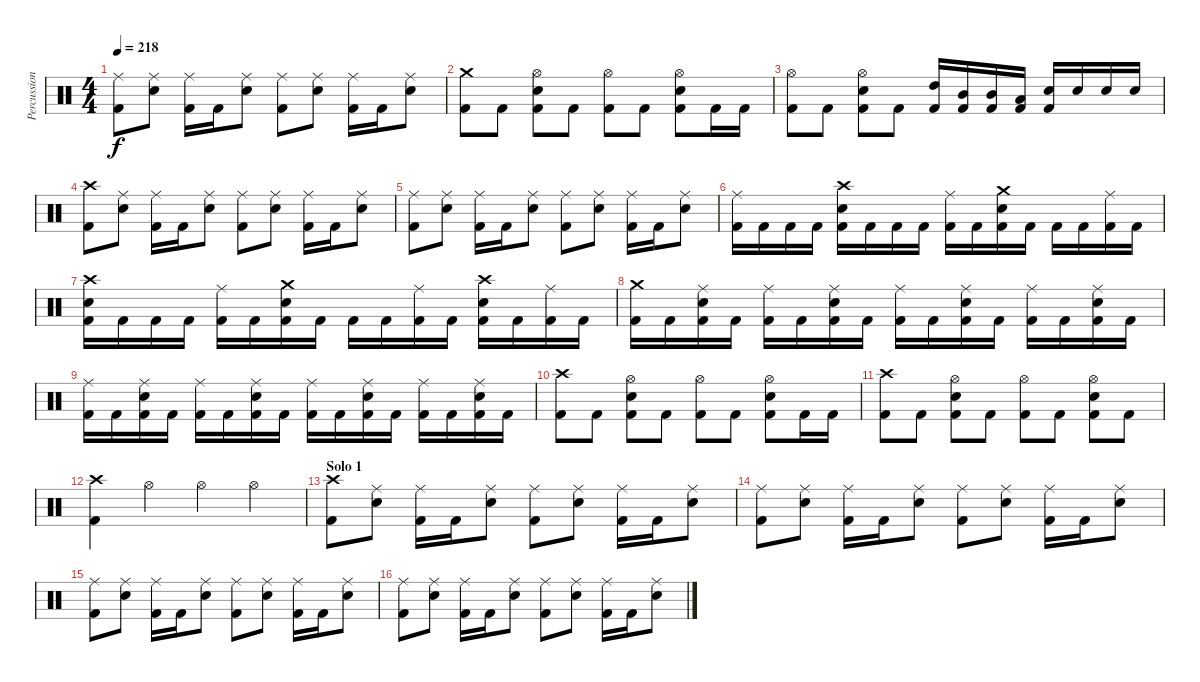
\track ("Percussion" "Percussion") {instrument percussion}
\staff {score}
\articulation defaults
\ts (4 4)
\tempo 218
\clef neutral
\ks c
("Ride (middle)" "Kick (hit) 2").8{dy f} ("Ride (middle)" "Electric Snare (hit)").8 ("Ride (middle)" "Kick (hit) 2").16 "Kick (hit) 2".16 ("Ride (middle)" "Electric Snare (hit)").8 ("Ride (middle)" "Kick (hit) 2").8 ("Ride (middle)" "Electric Snare (hit)").8 ("Ride (middle)" "Kick (hit) 2").16 "Kick (hit) 2".16 ("Ride (middle)" "Electric Snare (hit)").8 |
("Crash medium (hit)" "Kick (hit) 2").8 "Kick (hit) 2".8 ("Hi-Hat (open)" "Electric Snare (hit)" "Kick (hit) 2").8 "Kick (hit) 2".8 ("Hi-Hat (open)" "Kick (hit) 2").8 "Kick (hit) 2".8 ("Hi-Hat (open)" "Electric Snare (hit)" "Kick (hit) 2").8 "Kick (hit) 2".16 "Kick (hit) 2".16 |
("Hi-Hat (open)" "Kick (hit) 2").8 "Kick (hit) 2".8 ("Hi-Hat (open)" "Electric Snare (hit)" "Kick (hit) 2").8 "Kick (hit) 2".8 ("High Tom (hit)" "Kick (hit) 2").16 ("Mid Tom (hit)" "Kick (hit) 2").16 ("Mid Tom (hit)" "Kick (hit) 2").16 ("Low Tom (hit)" "Kick (hit) 2").16 ("Electric Snare (hit)" "Kick (hit) 2").16 "Electric Snare (hit)".16 "Electric Snare (hit)".16 "Electric Snare (hit)".16 |
("Crash high (hit)" "Kick (hit) 2").8 ("Ride (middle)" "Electric Snare (hit)").8 ("Ride (middle)" "Kick (hit) 2").16 "Kick (hit) 2".16 ("Ride (middle)" "Electric Snare (hit)").8 ("Ride (middle)" "Kick (hit) 2").8 ("Ride (middle)" "Electric Snare (hit)").8 ("Ride (middle)" "Kick (hit) 2").16 "Kick (hit) 2".16 ("Ride (middle)" "Electric Snare (hit)").8 |
("Ride (middle)" "Kick (hit) 2").8 ("Ride (middle)" "Electric Snare (hit)").8 ("Ride (middle)" "Kick (hit) 2").16 "Kick (hit) 2".16 ("Ride (middle)" "Electric Snare (hit)").8 ("Ride (middle)" "Kick (hit) 2").8 ("Ride (middle)" "Electric Snare (hit)").8 ("Ride (middle)" "Kick (hit) 2").16 "Kick (hit) 2".16 ("Ride (middle)" "Electric Snare (hit)").8 |
("Ride (middle)" "Kick (hit) 2").16 "Kick (hit) 2".16 "Kick (hit) 2".16 "Kick (hit) 2".16 ("Crash high (hit)" "Electric Snare (hit)" "Kick (hit) 2").16 "Kick (hit) 2".16 "Kick (hit) 2".16 "Kick (hit) 2".16 ("Ride (middle)" "Kick (hit) 2").16 "Kick (hit) 2".16 ("Crash medium (hit)" "Electric Snare (hit)" "Kick (hit) 2").16 "Kick (hit) 2".16 "Kick (hit) 2".16 "Kick (hit) 2".16 ("Ride (middle)" "Kick (hit) 2").16 "Kick (hit) 2".16 |
("Crash high (hit)" "Electric Snare (hit)" "Kick (hit) 2").16 "Kick (hit) 2".16 "Kick (hit) 2".16 "Kick (hit) 2".16 ("Ride (middle)" "Kick (hit) 2").16 "Kick (hit) 2".16 ("Crash medium (hit)" "Electric Snare (hit)" "Kick (hit) 2").16 "Kick (hit) 2".16 "Kick (hit) 2".16 "Kick (hit) 2".16 ("Ride (middle)" "Kick (hit) 2").16 "Kick (hit) 2".16 ("Crash high (hit)" "Electric Snare (hit)" "Kick (hit) 2").16 "Kick (hit) 2".16 ("Ride (middle)" "Kick (hit) 2").16 "Kick (hit) 2".16 |
("Crash medium (hit)" "Kick (hit) 2").16 "Kick (hit) 2".16 ("Ride (middle)" "Electric Snare (hit)" "Kick (hit) 2").16 "Kick (hit) 2".16 ("Ride (middle)" "Kick (hit) 2").16 "Kick (hit) 2".16 ("Ride (middle)" "Electric Snare (hit)" "Kick (hit) 2").16 "Kick (hit) 2".16 ("Ride (middle)" "Kick (hit) 2").16 "Kick (hit) 2".16 ("Ride (middle)" "Electric Snare (hit)" "Kick (hit) 2").16 "Kick (hit) 2".16 ("Ride (middle)" "Kick (hit) 2").16 "Kick (hit) 2".16 ("Ride (middle)" "Electric Snare (hit)" "Kick (hit) 2").16 "Kick (hit) 2".16 |
("Ride (middle)" "Kick (hit) 2").16 "Kick (hit) 2".16 ("Ride (middle)" "Electric Snare (hit)" "Kick (hit) 2").16 "Kick (hit) 2".16 ("Ride (middle)" "Kick (hit) 2").16 "Kick (hit) 2".16 ("Ride (middle)" "Electric Snare (hit)" "Kick (hit) 2").16 "Kick (hit) 2".16 ("Ride (middle)" "Kick (hit) 2").16 "Kick (hit) 2".16 ("Ride (middle)" "Electric Snare (hit)" "Kick (hit) 2").16 "Kick (hit) 2".16 ("Ride (middle)" "Kick (hit) 2").16 "Kick (hit) 2".16 ("Ride (middle)" "Electric Snare (hit)" "Kick (hit) 2").16 "Kick (hit) 2".16 |
("Crash high (hit)" "Kick (hit) 2").8 "Kick (hit) 2".8 ("Hi-Hat (open)" "Electric Snare (hit)" "Kick (hit) 2").8 "Kick (hit) 2".8 ("Hi-Hat (open)" "Kick (hit) 2").8 "Kick (hit) 2".8 ("Hi-Hat (open)" "Electric Snare (hit)" "Kick (hit) 2").8 "Kick (hit) 2".16 "Kick (hit) 2".16 |
("Crash high (hit)" "Kick (hit) 2").8 "Kick (hit) 2".8 ("Hi-Hat (open)" "Electric Snare (hit)" "Kick (hit) 2").8 "Kick (hit) 2".8 ("Hi-Hat (open)" "Kick (hit) 2").8 "Kick (hit) 2".8 ("Hi-Hat (open)" "Electric Snare (hit)" "Kick (hit) 2").8 "Kick (hit) 2".8 |
("Crash high (hit)" "Kick (hit) 2").4 "Hi-Hat (open)".4 "Hi-Hat (open)".4 "Hi-Hat (open)".4 |
\section ("" "Solo 1")
("Crash high (hit)" "Kick (hit) 2").8 ("Ride (middle)" "Electric Snare (hit)").8 ("Ride (middle)" "Kick (hit) 2").16 "Kick (hit) 2".16 ("Ride (middle)" "Electric Snare (hit)").8 ("Ride (middle)" "Kick (hit) 2").8 ("Ride (middle)" "Electric Snare (hit)").8 ("Ride (middle)" "Kick (hit) 2").16 "Kick (hit) 2".16 ("Ride (middle)" "Electric Snare (hit)").8 |
("Ride (middle)" "Kick (hit) 2").8 ("Ride (middle)" "Electric Snare (hit)").8 ("Ride (middle)" "Kick (hit) 2").16 "Kick (hit) 2".16 ("Ride (middle)" "Electric Snare (hit)").8 ("Ride (middle)" "Kick (hit) 2").8 ("Ride (middle)" "Electric Snare (hit)").8 ("Ride (middle)" "Kick (hit) 2").16 "Kick (hit) 2".16 ("Ride (middle)" "Electric Snare (hit)").8 |
("Ride (middle)" "Kick (hit) 2").8 ("Ride (middle)" "Electric Snare (hit)").8 ("Ride (middle)" "Kick (hit) 2").16 "Kick (hit) 2".16 ("Ride (middle)" "Electric Snare (hit)").8 ("Ride (middle)" "Kick (hit) 2").8 ("Ride (middle)" "Electric Snare (hit)").8 ("Ride (middle)" "Kick (hit) 2").16 "Kick (hit) 2".16 ("Ride (middle)" "Electric Snare (hit)").8 |
("Ride (middle)" "Kick (hit) 2").8 ("Ride (middle)" "Electric Snare (hit)").8 ("Ride (middle)" "Kick (hit) 2").16 "Kick (hit) 2".16 ("Ride (middle)" "Electric Snare (hit)").8 ("Ride (middle)" "Kick (hit) 2").8 ("Ride (middle)" "Electric Snare (hit)").8 ("Ride (middle)" "Kick (hit) 2").16 "Kick (hit) 2".16 ("Ride (middle)" "Electric Snare (hit)").8
